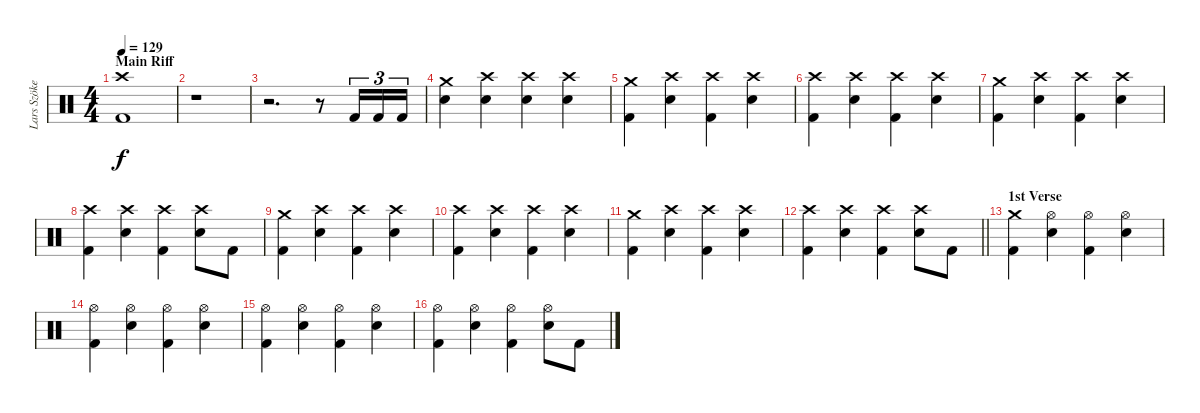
\track ("Lars Szöke" "Lars Szöke") {instrument percussion}
\staff {score}
\articulation defaults
\ts (4 4)
\section ("" "Main Riff")
\tempo 129
\clef neutral
\ks c
("Crash high (hit)" "Kick (hit) 2").1{dy f} |
r.1 |
r.2{d} r.8 "Kick (hit) 2".16{tu (3 2)} "Kick (hit) 2".16{tu (3 2)} "Kick (hit) 2".16{tu (3 2)} |
("Crash medium (hit)" "Snare (hit) 2").4 ("Crash high (hit)" "Snare (hit) 2").4 ("Crash high (hit)" "Snare (hit) 2").4 ("Crash high (hit)" "Snare (hit) 2").4 |
("Crash medium (hit)" "Kick (hit) 2").4 ("Crash high (hit)" "Snare (hit) 2").4 ("Crash high (hit)" "Kick (hit) 2").4 ("Crash high (hit)" "Snare (hit) 2").4 |
("Crash high (hit)" "Kick (hit) 2").4 ("Crash high (hit)" "Snare (hit) 2").4 ("Crash high (hit)" "Kick (hit) 2").4 ("Crash high (hit)" "Snare (hit) 2").4 |
("Crash medium (hit)" "Kick (hit) 2").4 ("Crash high (hit)" "Snare (hit) 2").4 ("Crash high (hit)" "Kick (hit) 2").4 ("Crash high (hit)" "Snare (hit) 2").4 |
("Crash high (hit)" "Kick (hit) 2").4 ("Crash high (hit)" "Snare (hit) 2").4 ("Crash high (hit)" "Kick (hit) 2").4 ("Crash high (hit)" "Snare (hit) 2").8 "Kick (hit) 2".8 |
("Crash medium (hit)" "Kick (hit) 2").4 ("Crash high (hit)" "Snare (hit) 2").4 ("Crash high (hit)" "Kick (hit) 2").4 ("Crash high (hit)" "Snare (hit) 2").4 |
("Crash high (hit)" "Kick (hit) 2").4 ("Crash high (hit)" "Snare (hit) 2").4 ("Crash high (hit)" "Kick (hit) 2").4 ("Crash high (hit)" "Snare (hit) 2").4 |
("Crash medium (hit)" "Kick (hit) 2").4 ("Crash high (hit)" "Snare (hit) 2").4 ("Crash high (hit)" "Kick (hit) 2").4 ("Crash high (hit)" "Snare (hit) 2").4 |
\barLineRight lightlight
("Crash high (hit)" "Kick (hit) 2").4 ("Crash high (hit)" "Snare (hit) 2").4 ("Crash high (hit)" "Kick (hit) 2").4 ("Crash high (hit)" "Snare (hit) 2").8 "Kick (hit) 2".8 |
\section ("" "1st Verse ")
("Crash medium (hit)" "Kick (hit) 2").4 ("Hi-Hat (open)" "Snare (hit) 2").4 ("Hi-Hat (open)" "Kick (hit) 2").4 ("Hi-Hat (open)" "Snare (hit) 2").4 |
("Hi-Hat (open)" "Kick (hit) 2").4 ("Hi-Hat (open)" "Snare (hit) 2").4 ("Hi-Hat (open)" "Kick (hit) 2").4 ("Hi-Hat (open)" "Snare (hit) 2").4 |
("Hi-Hat (open)" "Kick (hit) 2").4 ("Hi-Hat (open)" "Snare (hit) 2").4 ("Hi-Hat (open)" "Kick (hit) 2").4 ("Hi-Hat (open)" "Snare (hit) 2").4 |
("Hi-Hat (open)" "Kick (hit) 2").4 ("Hi-Hat (open)" "Snare (hit) 2").4 ("Hi-Hat (open)" "Kick (hit) 2").4 ("Hi-Hat (open)" "Snare (hit) 2").8 "Kick (hit) 2".8
